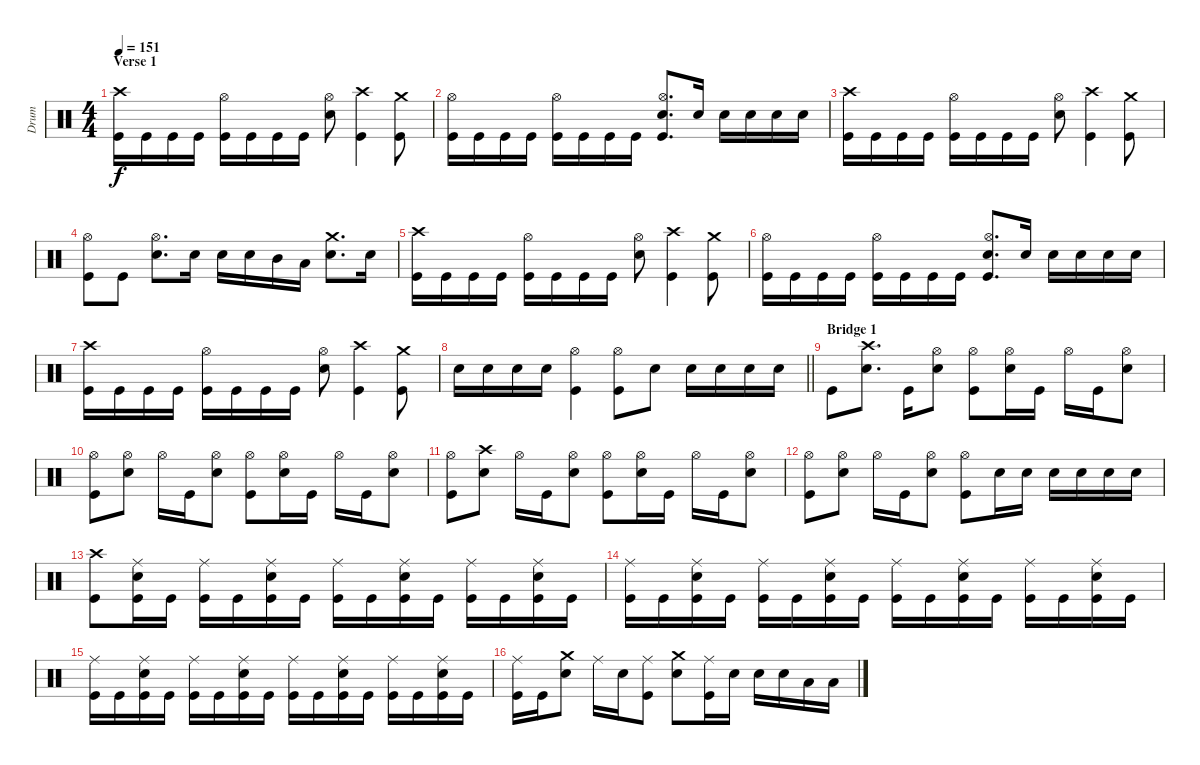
\track ("Drum" "Drum") {instrument percussion}
\staff {score}
\articulation defaults
\ts (4 4)
\section ("" "Verse 1")
\tempo 151
\clef neutral
\ks c
("Crash high (hit)" "Kick (hit)").16{dy f} "Kick (hit)".16 "Kick (hit)".16 "Kick (hit)".16 ("Hi-Hat (open)" "Kick (hit)").16 "Kick (hit)".16 "Kick (hit)".16 "Kick (hit)".16 ("Hi-Hat (open)" "Snare (hit) 2").8 ("Crash high (hit)" "Kick (hit)").4 ("Crash medium (hit)" "Kick (hit)").8 |
("Hi-Hat (open)" "Kick (hit)").16 "Kick (hit)".16 "Kick (hit)".16 "Kick (hit)".16 ("Hi-Hat (open)" "Kick (hit)").16 "Kick (hit)".16 "Kick (hit)".16 "Kick (hit)".16 ("Hi-Hat (open)" "Snare (hit) 2" "Kick (hit)").8{d} "Snare (hit) 2".16 "Snare (hit) 2".16 "Snare (hit) 2".16 "Snare (hit) 2".16 "Snare (hit) 2".16 |
("Crash high (hit)" "Kick (hit)").16 "Kick (hit)".16 "Kick (hit)".16 "Kick (hit)".16 ("Hi-Hat (open)" "Kick (hit)").16 "Kick (hit)".16 "Kick (hit)".16 "Kick (hit)".16 ("Hi-Hat (open)" "Snare (hit) 2").8 ("Crash high (hit)" "Kick (hit)").4 ("Crash medium (hit)" "Kick (hit)").8 |
("Hi-Hat (open)" "Kick (hit)").8 "Kick (hit)".8 ("Hi-Hat (open)" "Snare (hit) 2").8{d} "Snare (hit) 2".16 "Snare (hit) 2".16 "Snare (hit) 2".16 "Mid Tom (hit)".16 "Low Tom (hit)".16 ("Crash medium (hit)" "Snare (hit) 2").8{d} "Snare (hit) 2".16 |
("Crash high (hit)" "Kick (hit)").16 "Kick (hit)".16 "Kick (hit)".16 "Kick (hit)".16 ("Hi-Hat (open)" "Kick (hit)").16 "Kick (hit)".16 "Kick (hit)".16 "Kick (hit)".16 ("Hi-Hat (open)" "Snare (hit) 2").8 ("Crash high (hit)" "Kick (hit)").4 ("Crash medium (hit)" "Kick (hit)").8 |
("Hi-Hat (open)" "Kick (hit)").16 "Kick (hit)".16 "Kick (hit)".16 "Kick (hit)".16 ("Hi-Hat (open)" "Kick (hit)").16 "Kick (hit)".16 "Kick (hit)".16 "Kick (hit)".16 ("Hi-Hat (open)" "Snare (hit) 2" "Kick (hit)").8{d} "Snare (hit) 2".16 "Snare (hit) 2".16 "Snare (hit) 2".16 "Snare (hit) 2".16 "Snare (hit) 2".16 |
("Crash high (hit)" "Kick (hit)").16 "Kick (hit)".16 "Kick (hit)".16 "Kick (hit)".16 ("Hi-Hat (open)" "Kick (hit)").16 "Kick (hit)".16 "Kick (hit)".16 "Kick (hit)".16 ("Hi-Hat (open)" "Snare (hit) 2").8 ("Crash high (hit)" "Kick (hit)").4 ("Crash medium (hit)" "Kick (hit)").8 |
\barLineRight lightlight "Snare (hit) 2".16 "Snare (hit) 2".16 "Snare (hit) 2".16 "Snare (hit) 2".16
("Hi-Hat (open)" "Kick (hit)").4 ("Hi-Hat (open)" "Kick (hit)").8 "Snare (hit) 2".8 "Snare (hit) 2".16 "Snare (hit) 2".16 "Snare (hit) 2".16 "Snare (hit) 2".16 |
\section ("" "Bridge 1")
"Kick (hit)".8 ("Crash high (hit)" "Snare (hit) 2").8{d} "Kick (hit)".16 ("Hi-Hat (open)" "Snare (hit) 2").8 ("Hi-Hat (open)" "Kick (hit)").8 ("Hi-Hat (open)" "Snare (hit) 2").16 "Kick (hit)".16 "Hi-Hat (open)".16 "Kick (hit)".16 ("Hi-Hat (open)" "Snare (hit) 2").8 |
("Hi-Hat (open)" "Kick (hit)").8 ("Hi-Hat (open)" "Snare (hit) 2").8 "Hi-Hat (open)".16 "Kick (hit)".16 ("Hi-Hat (open)" "Snare (hit) 2").8 ("Hi-Hat (open)" "Kick (hit)").8 ("Hi-Hat (open)" "Snare (hit) 2").16 "Kick (hit)".16 "Hi-Hat (open)".16 "Kick (hit)".16 ("Hi-Hat (open)" "Snare (hit) 2").8 |
("Hi-Hat (open)" "Kick (hit)").8 ("Crash high (hit)" "Snare (hit) 2").8 "Hi-Hat (open)".16 "Kick (hit)".16 ("Hi-Hat (open)" "Snare (hit) 2").8 ("Hi-Hat (open)" "Kick (hit)").8 ("Hi-Hat (open)" "Snare (hit) 2").16 "Kick (hit)".16 "Hi-Hat (open)".16 "Kick (hit)".16 ("Hi-Hat (open)" "Snare (hit) 2").8 |
("Hi-Hat (open)" "Kick (hit)").8 ("Hi-Hat (open)" "Snare (hit) 2").8 "Hi-Hat (open)".16 "Kick (hit)".16 ("Hi-Hat (open)" "Snare (hit) 2").8 ("Hi-Hat (open)" "Kick (hit)").8 "Snare (hit) 2".16 "Snare (hit) 2".16 "Snare (hit) 2".16 "Snare (hit) 2".16 "Snare (hit) 2".16 "Snare (hit) 2".16 |
("Crash high (hit)" "Kick (hit)").8 ("Ride (middle)" "Kick (hit)" "Snare (hit) 2").16 "Kick (hit)".16 ("Ride (middle)" "Kick (hit)").16 "Kick (hit)".16 ("Ride (middle)" "Kick (hit)" "Snare (hit) 2").16 "Kick (hit)".16 ("Ride (middle)" "Kick (hit)").16 "Kick (hit)".16 ("Ride (middle)" "Kick (hit)" "Snare (hit) 2").16 "Kick (hit)".16 ("Ride (middle)" "Kick (hit)").16 "Kick (hit)".16 ("Ride (middle)" "Kick (hit)" "Snare (hit) 2").16 "Kick (hit)".16 |
("Ride (middle)" "Kick (hit)").16 "Kick (hit)".16 ("Ride (middle)" "Kick (hit)" "Snare (hit) 2").16 "Kick (hit)".16 ("Ride (middle)" "Kick (hit)").16 "Kick (hit)".16 ("Ride (middle)" "Kick (hit)" "Snare (hit) 2").16 "Kick (hit)".16 ("Ride (middle)" "Kick (hit)").16 "Kick (hit)".16 ("Ride (middle)" "Kick (hit)" "Snare (hit) 2").16 "Kick (hit)".16 ("Ride (middle)" "Kick (hit)").16 "Kick (hit)".16 ("Ride (middle)" "Kick (hit)" "Snare (hit) 2").16 "Kick (hit)".16 |
("Ride (middle)" "Kick (hit)").16 "Kick (hit)".16 ("Ride (middle)" "Kick (hit)" "Snare (hit) 2").16 "Kick (hit)".16 ("Ride (middle)" "Kick (hit)").16 "Kick (hit)".16 ("Ride (middle)" "Kick (hit)" "Snare (hit) 2").16 "Kick (hit)".16 ("Ride (middle)" "Kick (hit)").16 "Kick (hit)".16 ("Ride (middle)" "Kick (hit)" "Snare (hit) 2").16 "Kick (hit)".16 ("Ride (middle)" "Kick (hit)").16 "Kick (hit)".16 ("Ride (middle)" "Kick (hit)" "Snare (hit) 2").16 "Kick (hit)".16 |
("Ride (middle)" "Kick (hit)").16 "Kick (hit)".16 ("Crash medium (hit)" "Snare (hit) 2").8 "Ride (middle)".16 "Snare (hit) 2".16 ("Ride (middle)" "Kick (hit)").8 ("Crash medium (hit)" "Snare (hit) 2").8 ("Ride (middle)" "Kick (hit)").16 "Snare (hit) 2".16 "Snare (hit) 2".16 "Snare (hit) 2".16 "Low Tom (hit)".16 "Low Tom (hit)".16
